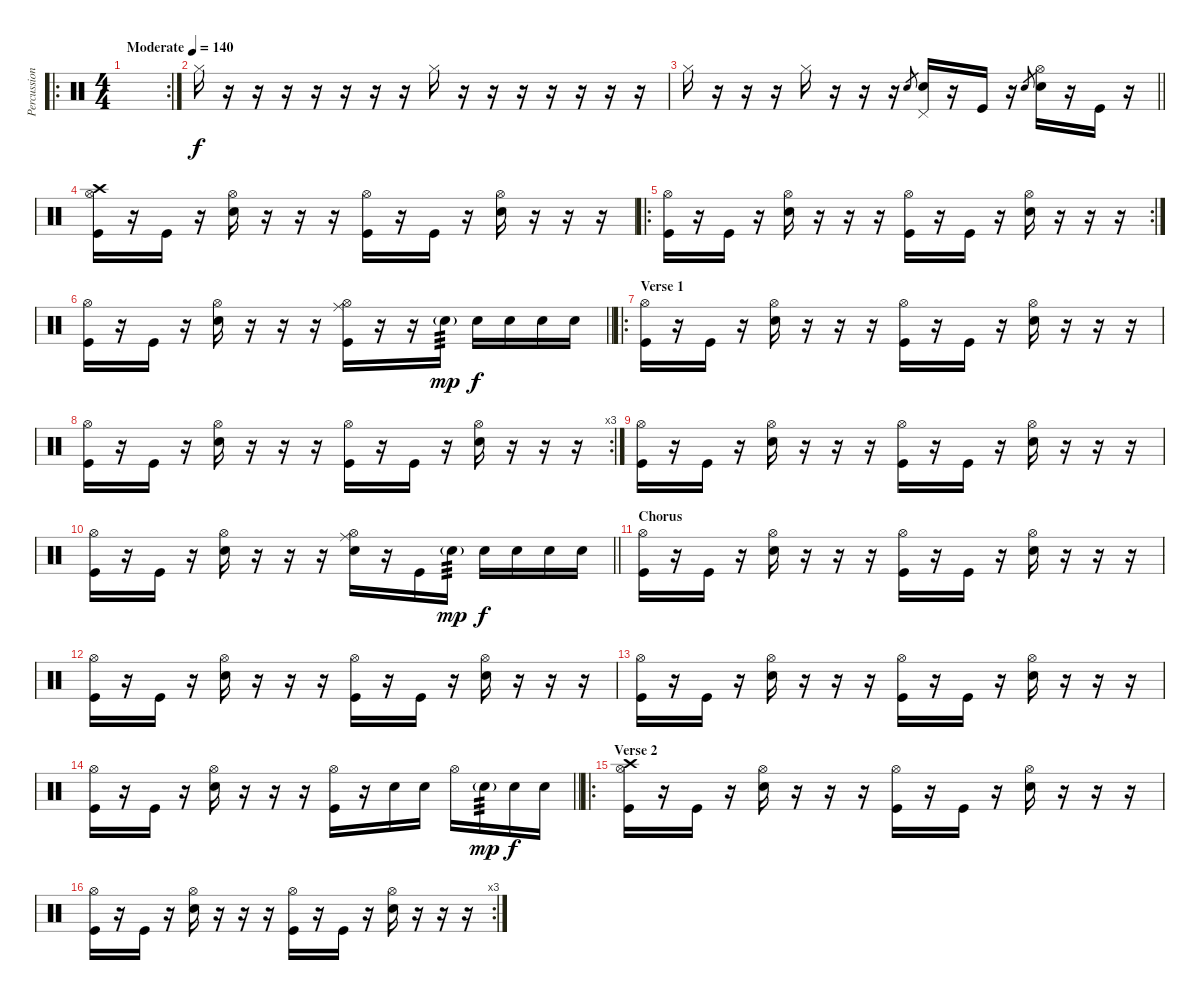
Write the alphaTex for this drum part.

\track ("Percussion" "Percussion") {instrument percussion}
\staff {score}
\articulation defaults
\ro
\rc 2
\ts (4 4)
\tempo (140 "Moderate")
\clef neutral
\ks c
|
"Hi-Hat (closed)".16 r.16 r.16 r.16 r.16 r.16 r.16 r.16 "Hi-Hat (closed)".16 r.16 r.16 r.16 r.16 r.16 r.16 r.16 |
\barLineRight lightlight "Hi-Hat (closed)".16
r.16 r.16 r.16 "Hi-Hat (closed)".16 r.16 r.16 r.16 "Snare (hit) 2".8{gr} ("Pedal Hi-Hat (hit)" "Snare (hit) 2").16 r.16 "Kick (hit)".16 r.16 "Snare (hit) 2".8{gr} ("Hi-Hat (open)" "Snare (hit) 2").16 r.16 "Kick (hit)".16 r.16 |
\section ("" "")
("Hi-Hat (open)" "Crash high (hit)" "Kick (hit)").16 r.16 "Kick (hit)".16 r.16 ("Hi-Hat (open)" "Snare (hit) 2").16 r.16 r.16 r.16 ("Hi-Hat (open)" "Kick (hit)").16 r.16 "Kick (hit)".16 r.16 ("Hi-Hat (open)" "Snare (hit) 2").16 r.16 r.16 r.16 |
\ro
\rc 2
("Hi-Hat (open)" "Kick (hit)").16 r.16 "Kick (hit)".16 r.16 ("Hi-Hat (open)" "Snare (hit) 2").16 r.16 r.16 r.16 ("Hi-Hat (open)" "Kick (hit)").16 r.16 "Kick (hit)".16 r.16 ("Hi-Hat (open)" "Snare (hit) 2").16 r.16 r.16 r.16 |
\barLineRight lightlight
("Hi-Hat (open)" "Kick (hit)").16 r.16 "Kick (hit)".16 r.16 ("Hi-Hat (open)" "Snare (hit) 2").16 r.16 r.16 r.16 ("Ride (middle)" "Hi-Hat (open)" "Kick (hit)").16 r.16 r.16 "Snare (hit) 2"{g}.16{tp 3 dy mp} "Snare (hit) 2".16{dy f} "Snare (hit) 2".16 "Snare (hit) 2".16 "Snare (hit) 2".16 |
\ro
\section ("" "Verse 1")
("Hi-Hat (open)" "Kick (hit)").16 r.16 "Kick (hit)".16 r.16 ("Hi-Hat (open)" "Snare (hit) 2").16 r.16 r.16 r.16 ("Hi-Hat (open)" "Kick (hit)").16 r.16 "Kick (hit)".16 r.16 ("Hi-Hat (open)" "Snare (hit) 2").16 r.16 r.16 r.16 |
\rc 3
("Hi-Hat (open)" "Kick (hit)").16 r.16 "Kick (hit)".16 r.16 ("Hi-Hat (open)" "Snare (hit) 2").16 r.16 r.16 r.16 ("Hi-Hat (open)" "Kick (hit)").16 r.16 "Kick (hit)".16 r.16 ("Hi-Hat (open)" "Snare (hit) 2").16 r.16 r.16 r.16 |
("Hi-Hat (open)" "Kick (hit)").16 r.16 "Kick (hit)".16 r.16 ("Hi-Hat (open)" "Snare (hit) 2").16 r.16 r.16 r.16 ("Hi-Hat (open)" "Kick (hit)").16 r.16 "Kick (hit)".16 r.16 ("Hi-Hat (open)" "Snare (hit) 2").16 r.16 r.16 r.16 |
\barLineRight lightlight
("Hi-Hat (open)" "Kick (hit)").16 r.16 "Kick (hit)".16 r.16 ("Hi-Hat (open)" "Snare (hit) 2").16 r.16 r.16 r.16 ("Ride (middle)" "Hi-Hat (open)" "Snare (hit) 2").16 r.16 "Kick (hit)".16 "Snare (hit) 2"{g}.16{tp 3 dy mp} "Snare (hit) 2".16{dy f} "Snare (hit) 2".16 "Snare (hit) 2".16 "Snare (hit) 2".16 |
\section ("" "Chorus ")
("Hi-Hat (open)" "Kick (hit)").16 r.16 "Kick (hit)".16 r.16 ("Hi-Hat (open)" "Snare (hit) 2").16 r.16 r.16 r.16 ("Hi-Hat (open)" "Kick (hit)").16 r.16 "Kick (hit)".16 r.16 ("Hi-Hat (open)" "Snare (hit) 2").16 r.16 r.16 r.16 |
("Hi-Hat (open)" "Kick (hit)").16 r.16 "Kick (hit)".16 r.16 ("Hi-Hat (open)" "Snare (hit) 2").16 r.16 r.16 r.16 ("Hi-Hat (open)" "Kick (hit)").16 r.16 "Kick (hit)".16 r.16 ("Hi-Hat (open)" "Snare (hit) 2").16 r.16 r.16 r.16 |
("Hi-Hat (open)" "Kick (hit)").16 r.16 "Kick (hit)".16 r.16 ("Hi-Hat (open)" "Snare (hit) 2").16 r.16 r.16 r.16 ("Hi-Hat (open)" "Kick (hit)").16 r.16 "Kick (hit)".16 r.16 ("Hi-Hat (open)" "Snare (hit) 2").16 r.16 r.16 r.16 |
\barLineRight lightlight
("Hi-Hat (open)" "Kick (hit)").16 r.16 "Kick (hit)".16 r.16 ("Hi-Hat (open)" "Snare (hit) 2").16 r.16 r.16 r.16 ("Hi-Hat (open)" "Kick (hit)").16 r.16 "Snare (hit) 2".16 "Snare (hit) 2".16 "Hi-Hat (open)".16 "Snare (hit) 2"{g}.16{tp 3 dy mp} "Snare (hit) 2".16{dy f} "Snare (hit) 2".16 |
\ro
\section ("" "Verse 2")
("Hi-Hat (open)" "Crash high (hit)" "Kick (hit)").16 r.16 "Kick (hit)".16 r.16 ("Hi-Hat (open)" "Snare (hit) 2").16 r.16 r.16 r.16 ("Hi-Hat (open)" "Kick (hit)").16 r.16 "Kick (hit)".16 r.16 ("Hi-Hat (open)" "Snare (hit) 2").16 r.16 r.16 r.16 |
\rc 3
("Hi-Hat (open)" "Kick (hit)").16 r.16 "Kick (hit)".16 r.16 ("Hi-Hat (open)" "Snare (hit) 2").16 r.16 r.16 r.16 ("Hi-Hat (open)" "Kick (hit)").16 r.16 "Kick (hit)".16 r.16 ("Hi-Hat (open)" "Snare (hit) 2").16 r.16 r.16 r.16
